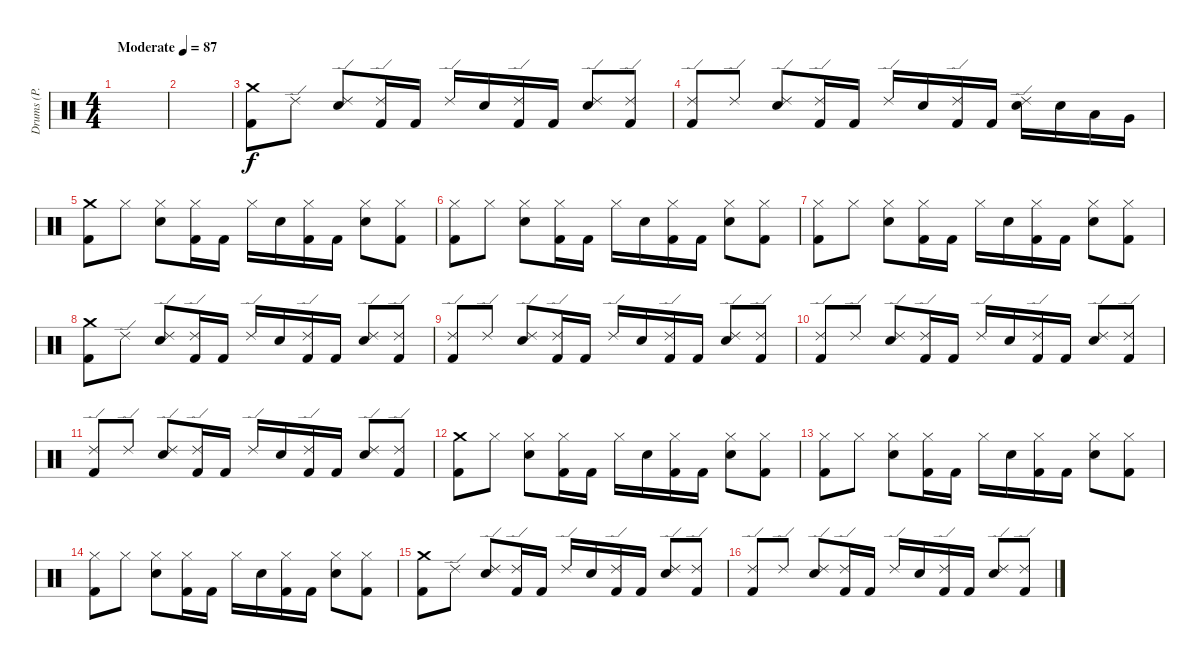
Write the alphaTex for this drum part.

\track ("Drums (P. Selway)" "Drums (P. ") {instrument percussion}
\staff {score}
\articulation defaults
\ts (4 4)
\tempo (87 "Moderate")
\clef neutral
\ks c
|
|
("Crash medium (hit)" "Kick (hit) 2").8 "Ride (edge) 2".8 ("Ride (edge) 2" "Electric Snare (hit)").8 ("Ride (edge) 2" "Kick (hit) 2").16 "Kick (hit) 2".16 "Ride (edge) 2".16 "Electric Snare (hit)".16 ("Ride (edge) 2" "Kick (hit) 2").16 "Kick (hit) 2".16 ("Ride (edge) 2" "Electric Snare (hit)").8 ("Ride (edge) 2" "Kick (hit) 2").8 |
("Ride (edge) 2" "Kick (hit) 2").8 "Ride (edge) 2".8 ("Ride (edge) 2" "Electric Snare (hit)").8 ("Ride (edge) 2" "Kick (hit) 2").16 "Kick (hit) 2".16 "Ride (edge) 2".16 "Electric Snare (hit)".16 ("Ride (edge) 2" "Kick (hit) 2").16 "Kick (hit) 2".16 ("Ride (edge) 2" "Electric Snare (hit)").16 "Electric Snare (hit)".16 "Low Tom (hit)".16 "Very Low Tom (hit)".16 |
("Crash medium (hit)" "Kick (hit) 2").8 "Hi-Hat (closed)".8 ("Hi-Hat (closed)" "Electric Snare (hit)").8 ("Hi-Hat (closed)" "Kick (hit) 2").16 "Kick (hit) 2".16 "Hi-Hat (closed)".16 "Electric Snare (hit)".16 ("Hi-Hat (closed)" "Kick (hit) 2").16 "Kick (hit) 2".16 ("Hi-Hat (closed)" "Electric Snare (hit)").8 ("Hi-Hat (closed)" "Kick (hit) 2").8 |
("Hi-Hat (closed)" "Kick (hit) 2").8 "Hi-Hat (closed)".8 ("Hi-Hat (closed)" "Electric Snare (hit)").8 ("Hi-Hat (closed)" "Kick (hit) 2").16 "Kick (hit) 2".16 "Hi-Hat (closed)".16 "Electric Snare (hit)".16 ("Hi-Hat (closed)" "Kick (hit) 2").16 "Kick (hit) 2".16 ("Hi-Hat (closed)" "Electric Snare (hit)").8 ("Hi-Hat (closed)" "Kick (hit) 2").8 |
("Hi-Hat (closed)" "Kick (hit) 2").8 "Hi-Hat (closed)".8 ("Hi-Hat (closed)" "Electric Snare (hit)").8 ("Hi-Hat (closed)" "Kick (hit) 2").16 "Kick (hit) 2".16 "Hi-Hat (closed)".16 "Electric Snare (hit)".16 ("Hi-Hat (closed)" "Kick (hit) 2").16 "Kick (hit) 2".16 ("Hi-Hat (closed)" "Electric Snare (hit)").8 ("Hi-Hat (closed)" "Kick (hit) 2").8 |
("Crash medium (hit)" "Kick (hit) 2").8 "Ride (edge) 2".8 ("Ride (edge) 2" "Electric Snare (hit)").8 ("Ride (edge) 2" "Kick (hit) 2").16 "Kick (hit) 2".16 "Ride (edge) 2".16 "Electric Snare (hit)".16 ("Ride (edge) 2" "Kick (hit) 2").16 "Kick (hit) 2".16 ("Ride (edge) 2" "Electric Snare (hit)").8 ("Ride (edge) 2" "Kick (hit) 2").8 |
("Ride (edge) 2" "Kick (hit) 2").8 "Ride (edge) 2".8 ("Ride (edge) 2" "Electric Snare (hit)").8 ("Ride (edge) 2" "Kick (hit) 2").16 "Kick (hit) 2".16 "Ride (edge) 2".16 "Electric Snare (hit)".16 ("Ride (edge) 2" "Kick (hit) 2").16 "Kick (hit) 2".16 ("Ride (edge) 2" "Electric Snare (hit)").8 ("Ride (edge) 2" "Kick (hit) 2").8 |
("Ride (edge) 2" "Kick (hit) 2").8 "Ride (edge) 2".8 ("Ride (edge) 2" "Electric Snare (hit)").8 ("Ride (edge) 2" "Kick (hit) 2").16 "Kick (hit) 2".16 "Ride (edge) 2".16 "Electric Snare (hit)".16 ("Ride (edge) 2" "Kick (hit) 2").16 "Kick (hit) 2".16 ("Ride (edge) 2" "Electric Snare (hit)").8 ("Ride (edge) 2" "Kick (hit) 2").8 |
("Ride (edge) 2" "Kick (hit) 2").8 "Ride (edge) 2".8 ("Ride (edge) 2" "Electric Snare (hit)").8 ("Ride (edge) 2" "Kick (hit) 2").16 "Kick (hit) 2".16 "Ride (edge) 2".16 "Electric Snare (hit)".16 ("Ride (edge) 2" "Kick (hit) 2").16 "Kick (hit) 2".16 ("Ride (edge) 2" "Electric Snare (hit)").8 ("Ride (edge) 2" "Kick (hit) 2").8 |
("Crash medium (hit)" "Kick (hit) 2").8 "Hi-Hat (closed)".8 ("Hi-Hat (closed)" "Electric Snare (hit)").8 ("Hi-Hat (closed)" "Kick (hit) 2").16 "Kick (hit) 2".16 "Hi-Hat (closed)".16 "Electric Snare (hit)".16 ("Hi-Hat (closed)" "Kick (hit) 2").16 "Kick (hit) 2".16 ("Hi-Hat (closed)" "Electric Snare (hit)").8 ("Hi-Hat (closed)" "Kick (hit) 2").8 |
("Hi-Hat (closed)" "Kick (hit) 2").8 "Hi-Hat (closed)".8 ("Hi-Hat (closed)" "Electric Snare (hit)").8 ("Hi-Hat (closed)" "Kick (hit) 2").16 "Kick (hit) 2".16 "Hi-Hat (closed)".16 "Electric Snare (hit)".16 ("Hi-Hat (closed)" "Kick (hit) 2").16 "Kick (hit) 2".16 ("Hi-Hat (closed)" "Electric Snare (hit)").8 ("Hi-Hat (closed)" "Kick (hit) 2").8 |
("Hi-Hat (closed)" "Kick (hit) 2").8 "Hi-Hat (closed)".8 ("Hi-Hat (closed)" "Electric Snare (hit)").8 ("Hi-Hat (closed)" "Kick (hit) 2").16 "Kick (hit) 2".16 "Hi-Hat (closed)".16 "Electric Snare (hit)".16 ("Hi-Hat (closed)" "Kick (hit) 2").16 "Kick (hit) 2".16 ("Hi-Hat (closed)" "Electric Snare (hit)").8 ("Hi-Hat (closed)" "Kick (hit) 2").8 |
("Crash medium (hit)" "Kick (hit) 2").8 "Ride (edge) 2".8 ("Ride (edge) 2" "Electric Snare (hit)").8 ("Ride (edge) 2" "Kick (hit) 2").16 "Kick (hit) 2".16 "Ride (edge) 2".16 "Electric Snare (hit)".16 ("Ride (edge) 2" "Kick (hit) 2").16 "Kick (hit) 2".16 ("Ride (edge) 2" "Electric Snare (hit)").8 ("Ride (edge) 2" "Kick (hit) 2").8 |
("Ride (edge) 2" "Kick (hit) 2").8 "Ride (edge) 2".8 ("Ride (edge) 2" "Electric Snare (hit)").8 ("Ride (edge) 2" "Kick (hit) 2").16 "Kick (hit) 2".16 "Ride (edge) 2".16 "Electric Snare (hit)".16 ("Ride (edge) 2" "Kick (hit) 2").16 "Kick (hit) 2".16 ("Ride (edge) 2" "Electric Snare (hit)").8 ("Ride (edge) 2" "Kick (hit) 2").8
